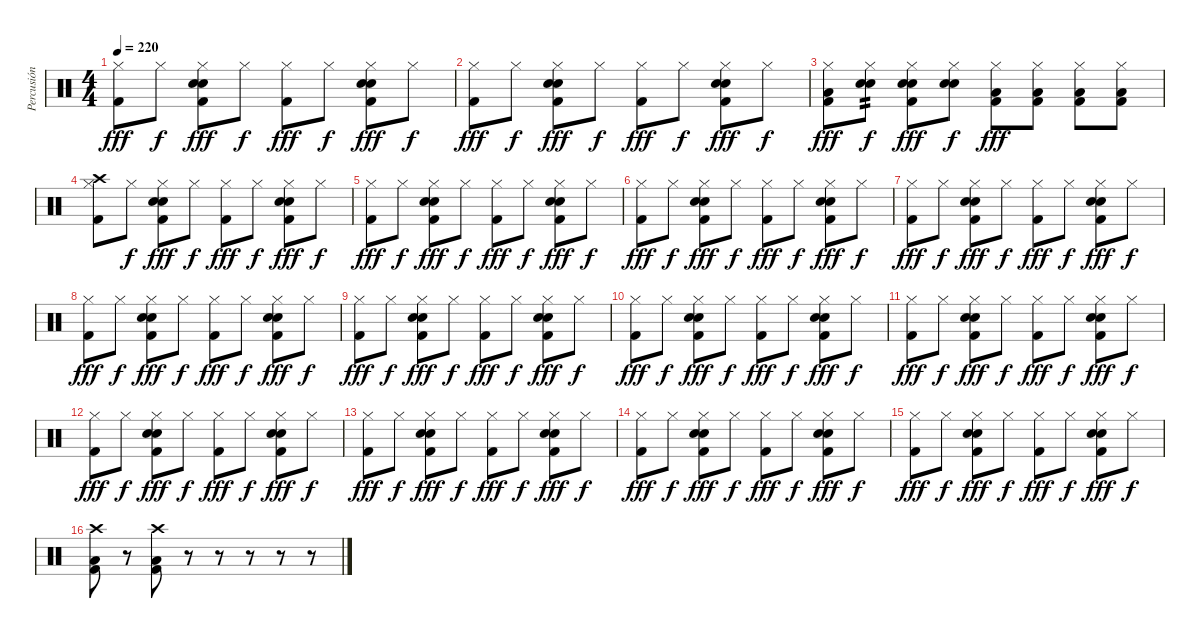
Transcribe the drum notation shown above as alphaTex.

\track ("Percusión" "Percusión") {instrument percussion}
\staff {score}
\articulation defaults
\ts (4 4)
\tempo 220
\clef neutral
\ks c
("Hi-Hat (closed)" "Kick (hit) 2").8{dy fff} "Hi-Hat (closed)".8{dy f} ("Hi-Hat (closed)" "Electric Snare (hit)" "Snare (hit) 2" "Kick (hit) 2").8{dy fff} "Hi-Hat (closed)".8{dy f} ("Hi-Hat (closed)" "Kick (hit) 2").8{dy fff} "Hi-Hat (closed)".8{dy f} ("Hi-Hat (closed)" "Electric Snare (hit)" "Snare (hit) 2" "Kick (hit) 2").8{dy fff} "Hi-Hat (closed)".8{dy f} |
("Hi-Hat (closed)" "Kick (hit) 2").8{dy fff} "Hi-Hat (closed)".8{dy f} ("Hi-Hat (closed)" "Electric Snare (hit)" "Snare (hit) 2" "Kick (hit) 2").8{dy fff} "Hi-Hat (closed)".8{dy f} ("Hi-Hat (closed)" "Kick (hit) 2").8{dy fff} "Hi-Hat (closed)".8{dy f} ("Hi-Hat (closed)" "Electric Snare (hit)" "Snare (hit) 2" "Kick (hit) 2").8{dy fff} "Hi-Hat (closed)".8{dy f} |
("Hi-Hat (closed)" "Low Tom (hit)" "Kick (hit) 2").8{dy fff} ("Hi-Hat (closed)" "Snare (hit) 2" "Electric Snare (hit)").8{tp 2 dy f} ("Hi-Hat (closed)" "Snare (hit) 2" "Electric Snare (hit)" "Kick (hit) 2").8{dy fff} ("Hi-Hat (closed)" "Snare (hit) 2" "Electric Snare (hit)").8{dy f} ("Hi-Hat (closed)" "Low Tom (hit)" "Kick (hit) 2").8{dy fff} ("Hi-Hat (closed)" "Low Tom (hit)" "Kick (hit) 2").8 ("Hi-Hat (closed)" "Low Tom (hit)" "Kick (hit) 2").8 ("Hi-Hat (closed)" "Low Tom (hit)" "Kick (hit) 2").8 |
("Crash high (hit)" "Hi-Hat (closed)" "Kick (hit) 2").8 "Hi-Hat (closed)".8{dy f} ("Hi-Hat (closed)" "Electric Snare (hit)" "Snare (hit) 2" "Kick (hit) 2").8{dy fff} "Hi-Hat (closed)".8{dy f} ("Hi-Hat (closed)" "Kick (hit) 2").8{dy fff} "Hi-Hat (closed)".8{dy f} ("Hi-Hat (closed)" "Electric Snare (hit)" "Snare (hit) 2" "Kick (hit) 2").8{dy fff} "Hi-Hat (closed)".8{dy f} |
("Hi-Hat (closed)" "Kick (hit) 2").8{dy fff} "Hi-Hat (closed)".8{dy f} ("Hi-Hat (closed)" "Electric Snare (hit)" "Snare (hit) 2" "Kick (hit) 2").8{dy fff} "Hi-Hat (closed)".8{dy f} ("Hi-Hat (closed)" "Kick (hit) 2").8{dy fff} "Hi-Hat (closed)".8{dy f} ("Hi-Hat (closed)" "Electric Snare (hit)" "Snare (hit) 2" "Kick (hit) 2").8{dy fff} "Hi-Hat (closed)".8{dy f} |
("Hi-Hat (closed)" "Kick (hit) 2").8{dy fff} "Hi-Hat (closed)".8{dy f} ("Hi-Hat (closed)" "Electric Snare (hit)" "Snare (hit) 2" "Kick (hit) 2").8{dy fff} "Hi-Hat (closed)".8{dy f} ("Hi-Hat (closed)" "Kick (hit) 2").8{dy fff} "Hi-Hat (closed)".8{dy f} ("Hi-Hat (closed)" "Electric Snare (hit)" "Snare (hit) 2" "Kick (hit) 2").8{dy fff} "Hi-Hat (closed)".8{dy f} |
("Hi-Hat (closed)" "Kick (hit) 2").8{dy fff} "Hi-Hat (closed)".8{dy f} ("Hi-Hat (closed)" "Electric Snare (hit)" "Snare (hit) 2" "Kick (hit) 2").8{dy fff} "Hi-Hat (closed)".8{dy f} ("Hi-Hat (closed)" "Kick (hit) 2").8{dy fff} "Hi-Hat (closed)".8{dy f} ("Hi-Hat (closed)" "Electric Snare (hit)" "Snare (hit) 2" "Kick (hit) 2").8{dy fff} "Hi-Hat (closed)".8{dy f} |
("Hi-Hat (closed)" "Kick (hit) 2").8{dy fff} "Hi-Hat (closed)".8{dy f} ("Hi-Hat (closed)" "Electric Snare (hit)" "Snare (hit) 2" "Kick (hit) 2").8{dy fff} "Hi-Hat (closed)".8{dy f} ("Hi-Hat (closed)" "Kick (hit) 2").8{dy fff} "Hi-Hat (closed)".8{dy f} ("Hi-Hat (closed)" "Electric Snare (hit)" "Snare (hit) 2" "Kick (hit) 2").8{dy fff} "Hi-Hat (closed)".8{dy f} |
("Hi-Hat (closed)" "Kick (hit) 2").8{dy fff} "Hi-Hat (closed)".8{dy f} ("Hi-Hat (closed)" "Electric Snare (hit)" "Snare (hit) 2" "Kick (hit) 2").8{dy fff} "Hi-Hat (closed)".8{dy f} ("Hi-Hat (closed)" "Kick (hit) 2").8{dy fff} "Hi-Hat (closed)".8{dy f} ("Hi-Hat (closed)" "Electric Snare (hit)" "Snare (hit) 2" "Kick (hit) 2").8{dy fff} "Hi-Hat (closed)".8{dy f} |
("Hi-Hat (closed)" "Kick (hit) 2").8{dy fff} "Hi-Hat (closed)".8{dy f} ("Hi-Hat (closed)" "Electric Snare (hit)" "Snare (hit) 2" "Kick (hit) 2").8{dy fff} "Hi-Hat (closed)".8{dy f} ("Hi-Hat (closed)" "Kick (hit) 2").8{dy fff} "Hi-Hat (closed)".8{dy f} ("Hi-Hat (closed)" "Electric Snare (hit)" "Snare (hit) 2" "Kick (hit) 2").8{dy fff} "Hi-Hat (closed)".8{dy f} |
("Hi-Hat (closed)" "Kick (hit) 2").8{dy fff} "Hi-Hat (closed)".8{dy f} ("Hi-Hat (closed)" "Electric Snare (hit)" "Snare (hit) 2" "Kick (hit) 2").8{dy fff} "Hi-Hat (closed)".8{dy f} ("Hi-Hat (closed)" "Kick (hit) 2").8{dy fff} "Hi-Hat (closed)".8{dy f} ("Hi-Hat (closed)" "Electric Snare (hit)" "Snare (hit) 2" "Kick (hit) 2").8{dy fff} "Hi-Hat (closed)".8{dy f} |
("Hi-Hat (closed)" "Kick (hit) 2").8{dy fff} "Hi-Hat (closed)".8{dy f} ("Hi-Hat (closed)" "Electric Snare (hit)" "Snare (hit) 2" "Kick (hit) 2").8{dy fff} "Hi-Hat (closed)".8{dy f} ("Hi-Hat (closed)" "Kick (hit) 2").8{dy fff} "Hi-Hat (closed)".8{dy f} ("Hi-Hat (closed)" "Electric Snare (hit)" "Snare (hit) 2" "Kick (hit) 2").8{dy fff} "Hi-Hat (closed)".8{dy f} |
("Hi-Hat (closed)" "Kick (hit) 2").8{dy fff} "Hi-Hat (closed)".8{dy f} ("Hi-Hat (closed)" "Electric Snare (hit)" "Snare (hit) 2" "Kick (hit) 2").8{dy fff} "Hi-Hat (closed)".8{dy f} ("Hi-Hat (closed)" "Kick (hit) 2").8{dy fff} "Hi-Hat (closed)".8{dy f} ("Hi-Hat (closed)" "Electric Snare (hit)" "Snare (hit) 2" "Kick (hit) 2").8{dy fff} "Hi-Hat (closed)".8{dy f} |
("Hi-Hat (closed)" "Kick (hit) 2").8{dy fff} "Hi-Hat (closed)".8{dy f} ("Hi-Hat (closed)" "Electric Snare (hit)" "Snare (hit) 2" "Kick (hit) 2").8{dy fff} "Hi-Hat (closed)".8{dy f} ("Hi-Hat (closed)" "Kick (hit) 2").8{dy fff} "Hi-Hat (closed)".8{dy f} ("Hi-Hat (closed)" "Electric Snare (hit)" "Snare (hit) 2" "Kick (hit) 2").8{dy fff} "Hi-Hat (closed)".8{dy f} |
("Hi-Hat (closed)" "Kick (hit) 2").8{dy fff} "Hi-Hat (closed)".8{dy f} ("Hi-Hat (closed)" "Electric Snare (hit)" "Snare (hit) 2" "Kick (hit) 2").8{dy fff} "Hi-Hat (closed)".8{dy f} ("Hi-Hat (closed)" "Kick (hit) 2").8{dy fff} "Hi-Hat (closed)".8{dy f} ("Hi-Hat (closed)" "Electric Snare (hit)" "Snare (hit) 2" "Kick (hit) 2").8{dy fff} "Hi-Hat (closed)".8{dy f} |
("Crash high (hit)" "Kick (hit) 2" "Low Tom (hit)").8 r.8 ("Crash high (hit)" "Kick (hit) 2" "Low Tom (hit)").8 r.8 r.8 r.8 r.8 r.8
